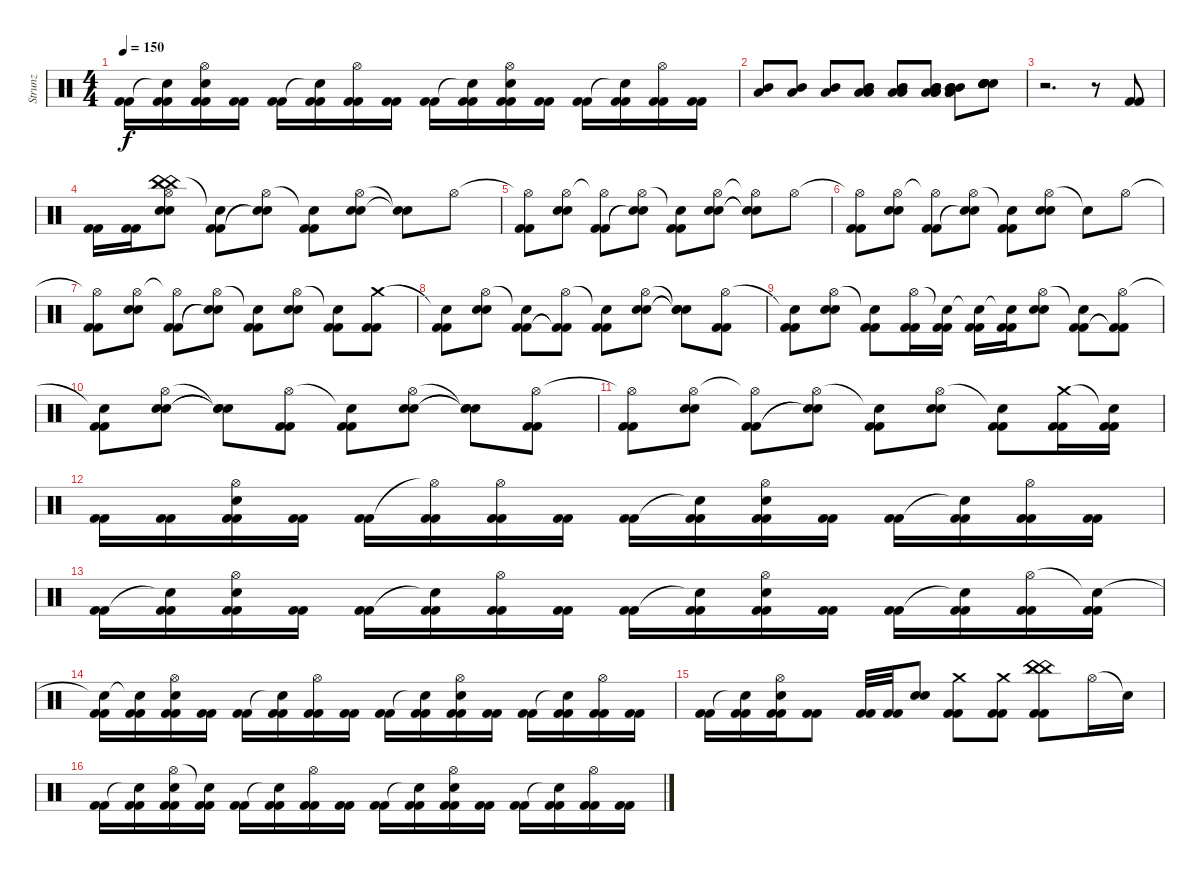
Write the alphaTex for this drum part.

\track ("Strunz" "Strunz") {instrument percussion}
\staff {score}
\articulation defaults
\ts (4 4)
\tempo 150
\clef neutral
\ks c
("Kick (hit) 2" "Kick (hit) 2").16{dy f} ("Snare (hit)"{t} "Kick (hit) 2" "Kick (hit) 2").16 ("Hi-Hat (open)" "Snare (hit) 2" "Kick (hit) 2" "Kick (hit) 2").16 ("Kick (hit) 2" "Kick (hit) 2").16 ("Kick (hit) 2" "Kick (hit) 2").16 ("Snare (hit)"{t} "Kick (hit) 2" "Kick (hit) 2").16 ("Hi-Hat (open)" "Kick (hit) 2" "Kick (hit) 2").16 ("Kick (hit) 2" "Kick (hit) 2").16 ("Kick (hit) 2" "Kick (hit) 2").16 ("Snare (hit)"{t} "Kick (hit) 2" "Kick (hit) 2").16 ("Hi-Hat (open)" "Snare (hit) 2" "Kick (hit) 2" "Kick (hit) 2").16 ("Kick (hit) 2" "Kick (hit) 2").16 ("Kick (hit) 2" "Kick (hit) 2").16 ("Snare (hit)"{t} "Kick (hit) 2" "Kick (hit) 2").16 ("Hi-Hat (open)" "Kick (hit) 2" "Kick (hit) 2").16 ("Kick (hit) 2" "Kick (hit) 2").16 |
("Mid Tom (hit)" "Low Tom (hit)").8 ("Mid Tom (hit)" "Low Tom (hit)").8 ("Mid Tom (hit)" "Low Tom (hit)").8 ("Low Tom (hit)" "Low Tom (hit)" "Mid Tom (hit)" "Mid Tom (hit)").8 ("Low Tom (hit)" "Low Tom (hit)" "Mid Tom (hit)" "Mid Tom (hit)").8 ("Low Tom (hit)" "Low Tom (hit)" "Low Tom (hit)" "Mid Tom (hit)" "Mid Tom (hit)" "Mid Tom (hit)").8 ("Low Tom (hit)" "Low Tom (hit)" "Low Tom (hit)" "Mid Tom (hit)" "Mid Tom (hit)" "Mid Tom (hit)").8 ("Snare (hit) 2" "Snare (hit) 2" "Snare (hit) 2" "Snare (hit) 2" "Snare (hit) 2" "Snare (hit) 2").8 |
r.2{d} r.8 ("Kick (hit) 2" "Kick (hit) 2").8 |
("Kick (hit) 2" "Kick (hit) 2").16 ("Kick (hit) 2" "Kick (hit) 2").16 ("China (hit)" "Hi-Hat (open)" "China (hit)" "Snare (hit) 2" "Snare (hit) 2" "China (hit)").8 ("Snare (hit)"{t} "Kick (hit) 2" "Kick (hit) 2").8 ("Hi-Hat (open)" "Snare (hit)"{t} "Snare (hit)"{t}).8 ("Snare (hit)"{t} "Kick (hit) 2" "Kick (hit) 2").8 ("Hi-Hat (open)" "Snare (hit) 2" "Snare (hit) 2").8 ("Snare (hit)"{t} "Snare (hit)"{t}).8 "Hi-Hat (open)".8 |
("Hi-Hat (open)"{t} "Kick (hit) 2" "Kick (hit) 2").8 ("Hi-Hat (open)" "Snare (hit) 2" "Snare (hit) 2").8 ("Hi-Hat (open)"{t} "Kick (hit) 2" "Kick (hit) 2").8 ("Hi-Hat (open)" "Snare (hit)"{t} "Snare (hit)"{t}).8 ("Snare (hit)"{t} "Kick (hit) 2" "Kick (hit) 2").8 ("Hi-Hat (open)" "Snare (hit) 2" "Snare (hit) 2").8 ("Hi-Hat (open)"{t} "Snare (hit)"{t} "Snare (hit)"{t}).8 "Hi-Hat (open)".8 |
("Hi-Hat (open)"{t} "Kick (hit) 2" "Kick (hit) 2").8 ("Hi-Hat (open)" "Snare (hit) 2" "Snare (hit) 2").8 ("Hi-Hat (open)"{t} "Kick (hit) 2" "Kick (hit) 2").8 ("Hi-Hat (open)" "Snare (hit)"{t} "Snare (hit)"{t}).8 ("Snare (hit)"{t} "Kick (hit) 2" "Kick (hit) 2").8 ("Hi-Hat (open)" "Snare (hit) 2" "Snare (hit) 2").8 "Snare (hit)"{t}.8 "Hi-Hat (open)".8 |
("Hi-Hat (open)"{t} "Kick (hit) 2" "Kick (hit) 2").8 ("Hi-Hat (open)" "Snare (hit) 2" "Snare (hit) 2").8 ("Hi-Hat (open)"{t} "Kick (hit) 2" "Kick (hit) 2").8 ("Hi-Hat (open)" "Snare (hit)"{t} "Snare (hit)"{t}).8 ("Snare (hit)"{t} "Kick (hit) 2" "Kick (hit) 2").8 ("Hi-Hat (open)" "Snare (hit) 2" "Snare (hit) 2").8 ("Snare (hit)"{t} "Kick (hit) 2" "Kick (hit) 2").8 ("Crash medium (hit)" "Kick (hit) 2" "Kick (hit) 2").8 |
("Snare (hit)"{t} "Kick (hit) 2" "Kick (hit) 2").8 ("Hi-Hat (open)" "Snare (hit) 2" "Snare (hit) 2").8 ("Snare (hit)"{t} "Kick (hit) 2" "Kick (hit) 2").8 ("Hi-Hat (open)" "Kick (hit) 2"{t} "Kick (hit) 2"{t}).8 ("Snare (hit)"{t} "Kick (hit) 2" "Kick (hit) 2").8 ("Hi-Hat (open)" "Snare (hit) 2" "Snare (hit) 2").8 ("Snare (hit)"{t} "Snare (hit) 2"{t} "Snare (hit) 2"{t}).8 ("Hi-Hat (open)" "Kick (hit) 2" "Kick (hit) 2").8 |
("Snare (hit)"{t} "Kick (hit) 2" "Kick (hit) 2").8 ("Hi-Hat (open)" "Snare (hit) 2" "Snare (hit) 2").8 ("Snare (hit)"{t} "Kick (hit) 2" "Kick (hit) 2").8 ("Hi-Hat (open)" "Kick (hit) 2" "Kick (hit) 2").16 ("Snare (hit)"{t} "Kick (hit) 2" "Kick (hit) 2").16 ("Snare (hit)"{t} "Kick (hit) 2" "Kick (hit) 2").16 ("Snare (hit)"{t} "Kick (hit) 2" "Kick (hit) 2").16 ("Hi-Hat (open)" "Snare (hit) 2" "Snare (hit) 2").8 ("Snare (hit)"{t} "Kick (hit) 2" "Kick (hit) 2").8 ("Hi-Hat (open)" "Kick (hit) 2"{t} "Kick (hit) 2"{t}).8 |
("Snare (hit)"{t} "Kick (hit) 2" "Kick (hit) 2").8 ("Hi-Hat (open)" "Snare (hit) 2" "Snare (hit) 2").8 ("Snare (hit)"{t} "Snare (hit) 2"{t} "Snare (hit) 2"{t}).8 ("Hi-Hat (open)" "Kick (hit) 2" "Kick (hit) 2").8 ("Snare (hit)"{t} "Kick (hit) 2" "Kick (hit) 2").8 ("Hi-Hat (open)" "Snare (hit) 2" "Snare (hit) 2").8 ("Snare (hit)"{t} "Snare (hit)"{t} "Snare (hit)"{t}).8 ("Hi-Hat (open)" "Kick (hit) 2" "Kick (hit) 2").8 |
("Hi-Hat (open)"{t} "Kick (hit) 2" "Kick (hit) 2").8 ("Hi-Hat (open)" "Snare (hit) 2" "Snare (hit) 2").8 ("Hi-Hat (open)"{t} "Kick (hit) 2" "Kick (hit) 2").8 ("Hi-Hat (open)" "Snare (hit)"{t} "Snare (hit)"{t}).8 ("Snare (hit)"{t} "Kick (hit) 2" "Kick (hit) 2").8 ("Hi-Hat (open)" "Snare (hit) 2" "Snare (hit) 2").8 ("Snare (hit)"{t} "Kick (hit) 2" "Kick (hit) 2").8 ("Crash medium (hit)" "Kick (hit) 2" "Kick (hit) 2").16 ("Snare (hit)"{t} "Kick (hit) 2" "Kick (hit) 2").16 |
("Kick (hit) 2" "Kick (hit) 2").16 ("Kick (hit) 2" "Kick (hit) 2").16 ("Hi-Hat (open)" "Snare (hit) 2" "Kick (hit) 2" "Kick (hit) 2").16 ("Kick (hit) 2" "Kick (hit) 2").16 ("Kick (hit) 2" "Kick (hit) 2").16 ("Hi-Hat (open)"{t} "Kick (hit) 2" "Kick (hit) 2").16 ("Hi-Hat (open)" "Kick (hit) 2" "Kick (hit) 2").16 ("Kick (hit) 2" "Kick (hit) 2").16 ("Kick (hit) 2" "Kick (hit) 2").16 ("Snare (hit)"{t} "Kick (hit) 2" "Kick (hit) 2").16 ("Hi-Hat (open)" "Snare (hit) 2" "Kick (hit) 2" "Kick (hit) 2").16 ("Kick (hit) 2" "Kick (hit) 2").16 ("Kick (hit) 2" "Kick (hit) 2").16 ("Snare (hit)"{t} "Kick (hit) 2" "Kick (hit) 2").16 ("Hi-Hat (open)" "Kick (hit) 2" "Kick (hit) 2").16 ("Kick (hit) 2" "Kick (hit) 2").16 |
("Kick (hit) 2" "Kick (hit) 2").16 ("Snare (hit)"{t} "Kick (hit) 2" "Kick (hit) 2").16 ("Hi-Hat (open)" "Snare (hit) 2" "Kick (hit) 2" "Kick (hit) 2").16 ("Kick (hit) 2" "Kick (hit) 2").16 ("Kick (hit) 2" "Kick (hit) 2").16 ("Snare (hit)"{t} "Kick (hit) 2" "Kick (hit) 2").16 ("Hi-Hat (open)" "Kick (hit) 2" "Kick (hit) 2").16 ("Kick (hit) 2" "Kick (hit) 2").16 ("Kick (hit) 2" "Kick (hit) 2").16 ("Snare (hit)"{t} "Kick (hit) 2" "Kick (hit) 2").16 ("Hi-Hat (open)" "Snare (hit) 2" "Kick (hit) 2" "Kick (hit) 2").16 ("Kick (hit) 2" "Kick (hit) 2").16 ("Kick (hit) 2" "Kick (hit) 2").16 ("Snare (hit)"{t} "Kick (hit) 2" "Kick (hit) 2").16 ("Hi-Hat (open)" "Kick (hit) 2" "Kick (hit) 2").16 ("Snare (hit)"{t} "Kick (hit) 2" "Kick (hit) 2").16 |
("Snare (hit)"{t} "Kick (hit) 2" "Kick (hit) 2").16 ("Snare (hit)"{t} "Kick (hit) 2" "Kick (hit) 2").16 ("Hi-Hat (open)" "Snare (hit) 2" "Kick (hit) 2" "Kick (hit) 2").16 ("Kick (hit) 2" "Kick (hit) 2").16 ("Kick (hit) 2" "Kick (hit) 2").16 ("Snare (hit)"{t} "Kick (hit) 2" "Kick (hit) 2").16 ("Hi-Hat (open)" "Kick (hit) 2" "Kick (hit) 2").16 ("Kick (hit) 2" "Kick (hit) 2").16 ("Kick (hit) 2" "Kick (hit) 2").16 ("Snare (hit)"{t} "Kick (hit) 2" "Kick (hit) 2").16 ("Hi-Hat (open)" "Snare (hit) 2" "Kick (hit) 2" "Kick (hit) 2").16 ("Kick (hit) 2" "Kick (hit) 2").16 ("Kick (hit) 2" "Kick (hit) 2").16 ("Snare (hit)"{t} "Kick (hit) 2" "Kick (hit) 2").16 ("Hi-Hat (open)" "Kick (hit) 2" "Kick (hit) 2").16 ("Kick (hit) 2" "Kick (hit) 2").16 |
("Kick (hit) 2" "Kick (hit) 2").16 ("Snare (hit)"{t} "Kick (hit) 2" "Kick (hit) 2").16 ("Hi-Hat (open)" "Snare (hit) 2" "Kick (hit) 2" "Kick (hit) 2").16 ("Kick (hit) 2" "Kick (hit) 2").8 ("Kick (hit) 2" "Kick (hit) 2").32 ("Kick (hit) 2" "Kick (hit) 2").32 ("Snare (hit) 2" "Snare (hit) 2").8 ("Crash medium (hit)" "Kick (hit) 2" "Kick (hit) 2").8 ("Crash medium (hit)" "Kick (hit) 2" "Kick (hit) 2").8 ("China (hit)" "China (hit)" "China (hit)" "Kick (hit) 2" "Kick (hit) 2").8 "Hi-Hat (open)".16 "Snare (hit)"{t}.16 |
("Kick (hit) 2" "Kick (hit) 2").16 ("Snare (hit)"{t} "Kick (hit) 2" "Kick (hit) 2").16 ("Hi-Hat (open)" "Snare (hit) 2" "Kick (hit) 2" "Kick (hit) 2").16 ("Snare (hit)"{t} "Kick (hit) 2" "Kick (hit) 2").16 ("Kick (hit) 2" "Kick (hit) 2").16 ("Snare (hit)"{t} "Kick (hit) 2" "Kick (hit) 2").16 ("Hi-Hat (open)" "Kick (hit) 2" "Kick (hit) 2").16 ("Kick (hit) 2" "Kick (hit) 2").16 ("Kick (hit) 2" "Kick (hit) 2").16 ("Snare (hit)"{t} "Kick (hit) 2" "Kick (hit) 2").16 ("Hi-Hat (open)" "Snare (hit) 2" "Kick (hit) 2" "Kick (hit) 2").16 ("Kick (hit) 2" "Kick (hit) 2").16 ("Kick (hit) 2" "Kick (hit) 2").16 ("Snare (hit)"{t} "Kick (hit) 2" "Kick (hit) 2").16 ("Hi-Hat (open)" "Kick (hit) 2" "Kick (hit) 2").16 ("Kick (hit) 2" "Kick (hit) 2").16
